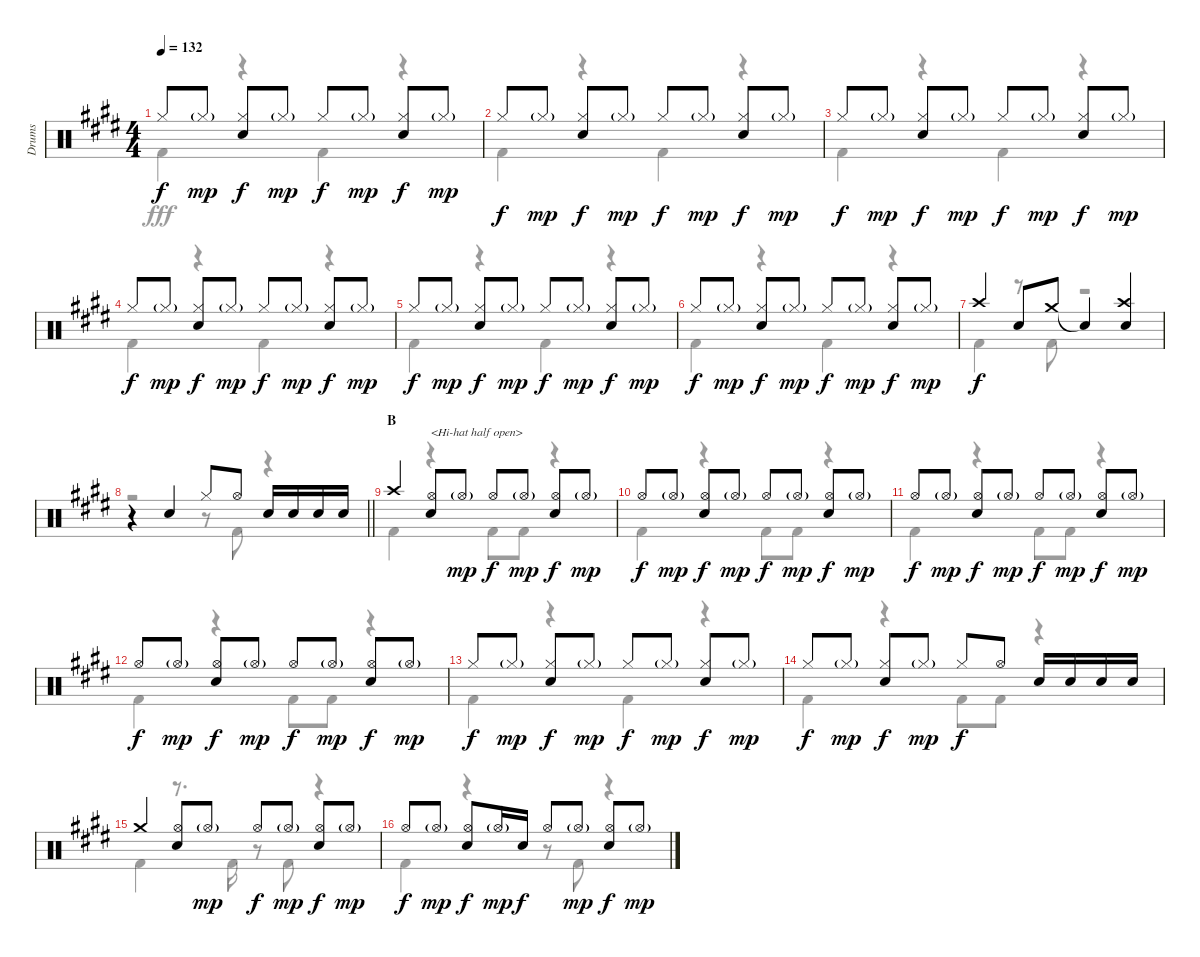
\track ("Drums" "Drums") {instrument percussion}
\staff {score}
\articulation defaults
\voice
\ts (4 4)
\tempo 132
\clef neutral
\ks e "Hi-Hat (closed)".8{dy f} "Hi-Hat (closed)"{g}.8{dy mp}
("Hi-Hat (closed)" "Snare (hit) 2").8{dy f} "Hi-Hat (closed)"{g}.8{dy mp} "Hi-Hat (closed)".8{dy f} "Hi-Hat (closed)"{g}.8{dy mp} ("Hi-Hat (closed)" "Snare (hit) 2").8{dy f} "Hi-Hat (closed)"{g}.8{dy mp} |
"Hi-Hat (closed)".8{dy f} "Hi-Hat (closed)"{g}.8{dy mp} ("Hi-Hat (closed)" "Snare (hit) 2").8{dy f} "Hi-Hat (closed)"{g}.8{dy mp} "Hi-Hat (closed)".8{dy f} "Hi-Hat (closed)"{g}.8{dy mp} ("Hi-Hat (closed)" "Snare (hit) 2").8{dy f} "Hi-Hat (closed)"{g}.8{dy mp} |
"Hi-Hat (closed)".8{dy f} "Hi-Hat (closed)"{g}.8{dy mp} ("Hi-Hat (closed)" "Snare (hit) 2").8{dy f} "Hi-Hat (closed)"{g}.8{dy mp} "Hi-Hat (closed)".8{dy f} "Hi-Hat (closed)"{g}.8{dy mp} ("Hi-Hat (closed)" "Snare (hit) 2").8{dy f} "Hi-Hat (closed)"{g}.8{dy mp} |
"Hi-Hat (closed)".8{dy f} "Hi-Hat (closed)"{g}.8{dy mp} ("Hi-Hat (closed)" "Snare (hit) 2").8{dy f} "Hi-Hat (closed)"{g}.8{dy mp} "Hi-Hat (closed)".8{dy f} "Hi-Hat (closed)"{g}.8{dy mp} ("Hi-Hat (closed)" "Snare (hit) 2").8{dy f} "Hi-Hat (closed)"{g}.8{dy mp} |
"Hi-Hat (closed)".8{dy f} "Hi-Hat (closed)"{g}.8{dy mp} ("Hi-Hat (closed)" "Snare (hit) 2").8{dy f} "Hi-Hat (closed)"{g}.8{dy mp} "Hi-Hat (closed)".8{dy f} "Hi-Hat (closed)"{g}.8{dy mp} ("Hi-Hat (closed)" "Snare (hit) 2").8{dy f} "Hi-Hat (closed)"{g}.8{dy mp} |
"Hi-Hat (closed)".8{dy f} "Hi-Hat (closed)"{g}.8{dy mp} ("Hi-Hat (closed)" "Snare (hit) 2").8{dy f} "Hi-Hat (closed)"{g}.8{dy mp} "Hi-Hat (closed)".8{dy f} "Hi-Hat (closed)"{g}.8{dy mp} ("Hi-Hat (closed)" "Snare (hit) 2").8{dy f} "Hi-Hat (closed)"{g}.8{dy mp} |
"Crash high (hit)".4{dy f} "Snare (hit) 2".8 "Crash medium (hit)".8 "Snare (hit)"{t}.4 ("Crash high (hit)" "Snare (hit) 2").4 |
\barLineRight lightlight
r.4 "Snare (hit) 2".4 "Hi-Hat (closed)".8 "Hi-Hat (open)".8 "Snare (hit) 2".16 "Snare (hit) 2".16 "Snare (hit) 2".16 "Snare (hit) 2".16 |
\section ("" "B")
"Crash high (hit)".4 ("Hi-Hat (open)" "Snare (hit) 2").8{txt "<Hi-hat half open>"} "Hi-Hat (open)"{g}.8{dy mp} "Hi-Hat (open)".8{dy f} "Hi-Hat (open)"{g}.8{dy mp} ("Hi-Hat (open)" "Snare (hit) 2").8{dy f} "Hi-Hat (open)"{g}.8{dy mp} |
"Hi-Hat (open)".8{dy f} "Hi-Hat (open)"{g}.8{dy mp} ("Hi-Hat (open)" "Snare (hit) 2").8{dy f} "Hi-Hat (open)"{g}.8{dy mp} "Hi-Hat (open)".8{dy f} "Hi-Hat (open)"{g}.8{dy mp} ("Hi-Hat (open)" "Snare (hit) 2").8{dy f} "Hi-Hat (open)"{g}.8{dy mp} |
"Hi-Hat (open)".8{dy f} "Hi-Hat (open)"{g}.8{dy mp} ("Hi-Hat (open)" "Snare (hit) 2").8{dy f} "Hi-Hat (open)"{g}.8{dy mp} "Hi-Hat (open)".8{dy f} "Hi-Hat (open)"{g}.8{dy mp} ("Hi-Hat (open)" "Snare (hit) 2").8{dy f} "Hi-Hat (open)"{g}.8{dy mp} |
"Hi-Hat (open)".8{dy f} "Hi-Hat (open)"{g}.8{dy mp} ("Hi-Hat (open)" "Snare (hit) 2").8{dy f} "Hi-Hat (open)"{g}.8{dy mp} "Hi-Hat (open)".8{dy f} "Hi-Hat (open)"{g}.8{dy mp} ("Hi-Hat (open)" "Snare (hit) 2").8{dy f} "Hi-Hat (open)"{g}.8{dy mp} |
"Hi-Hat (closed)".8{dy f} "Hi-Hat (closed)"{g}.8{dy mp} ("Hi-Hat (closed)" "Snare (hit) 2").8{dy f} "Hi-Hat (closed)"{g}.8{dy mp} "Hi-Hat (closed)".8{dy f} "Hi-Hat (closed)"{g}.8{dy mp} ("Hi-Hat (closed)" "Snare (hit) 2").8{dy f} "Hi-Hat (closed)"{g}.8{dy mp} |
"Hi-Hat (closed)".8{dy f} "Hi-Hat (closed)"{g}.8{dy mp} ("Hi-Hat (closed)" "Snare (hit) 2").8{dy f} "Hi-Hat (closed)"{g}.8{dy mp} "Hi-Hat (closed)".8{dy f} "Hi-Hat (open)".8 "Snare (hit) 2".16 "Snare (hit) 2".16 "Snare (hit) 2".16 "Snare (hit) 2".16 |
"Crash medium (hit)".4 ("Hi-Hat (open)" "Snare (hit) 2").8 "Hi-Hat (open)"{g}.8{dy mp} "Hi-Hat (open)".8{dy f} "Hi-Hat (open)"{g}.8{dy mp} ("Hi-Hat (open)" "Snare (hit) 2").8{dy f} "Hi-Hat (open)"{g}.8{dy mp} |
"Hi-Hat (open)".8{dy f} "Hi-Hat (open)"{g}.8{dy mp} ("Hi-Hat (open)" "Snare (hit) 2").8{dy f} "Hi-Hat (open)"{g}.16{dy mp} "Snare (hit) 2".16{dy f} "Hi-Hat (open)".8 "Hi-Hat (open)"{g}.8{dy mp} ("Hi-Hat (open)" "Snare (hit) 2").8{dy f} "Hi-Hat (open)"{g}.8{dy mp}
\voice
\clef neutral
\ottava regular
\simile none
\ks e "Kick (hit) 2".4{dy fff}
r.4 "Kick (hit) 2".4 r.4 |
"Kick (hit) 2".4 r.4 "Kick (hit) 2".4 r.4 |
"Kick (hit) 2".4 r.4 "Kick (hit) 2".4 r.4 |
"Kick (hit) 2".4 r.4 "Kick (hit) 2".4 r.4 |
"Kick (hit) 2".4 r.4 "Kick (hit) 2".4 r.4 |
"Kick (hit) 2".4 r.4 "Kick (hit) 2".4 r.4 |
"Kick (hit) 2".4 r.8 "Kick (hit) 2".8 r.2 |
\barLineRight lightlight
r.2 r.8 "Kick (hit) 2".8 r.4 |
"Kick (hit) 2".4 r.4 "Kick (hit) 2".8 "Kick (hit) 2".8 r.4 |
"Kick (hit) 2".4 r.4 "Kick (hit) 2".8 "Kick (hit) 2".8 r.4 |
"Kick (hit) 2".4 r.4 "Kick (hit) 2".8 "Kick (hit) 2".8 r.4 |
"Kick (hit) 2".4 r.4 "Kick (hit) 2".8 "Kick (hit) 2".8 r.4 |
"Kick (hit) 2".4 r.4 "Kick (hit) 2".4 r.4 |
"Kick (hit) 2".4 r.4 "Kick (hit) 2".8 "Kick (hit) 2".8 r.4 |
"Kick (hit) 2".4 r.8{d} "Kick (hit) 2".16 r.8 "Kick (hit) 2".8 r.4 |
"Kick (hit) 2".4 r.4 r.8 "Kick (hit) 2".8 r.4
